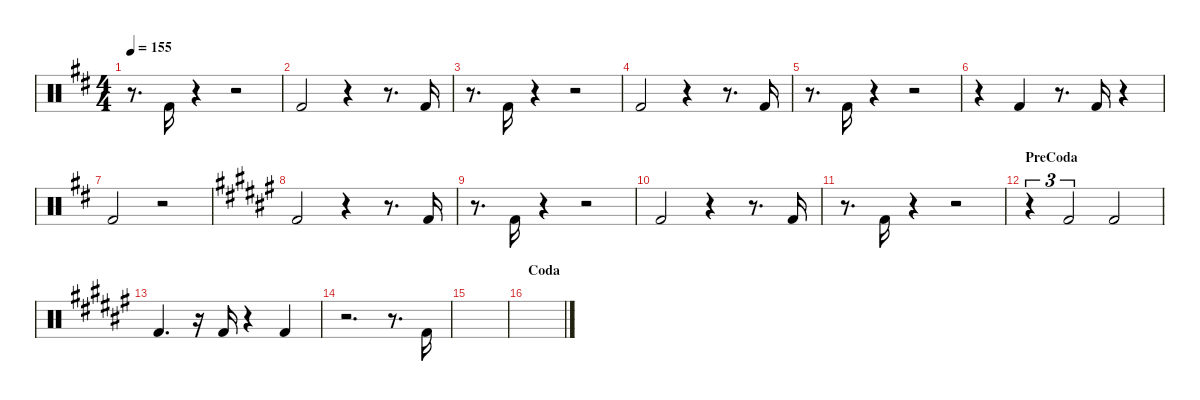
\hideDynamics
\bracketExtendMode nobrackets
\singleTrackTrackNamePolicy hidden
\multiTrackTrackNamePolicy hidden
\otherSystemsTrackNameOrientation horizontal
\track ("Kick" "Drums") {instrument percussion}
\staff {score}
\articulation defaults
\ts (4 4)
\tempo 155
\clef neutral
\ks d
r.8{d dy mf beam Down} "Kick (hit) 2"{acc forcenatural}.16{dy f beam Up} r.4{beam Up} r.2{beam Up} |
"Kick (hit) 2"{acc forcenatural}.2{beam Up} r.4{beam Up} r.8{d beam Up} "Kick (hit) 2"{acc forcenatural}.16{dy mf beam Up} |
r.8{d beam Down} "Kick (hit) 2"{acc forcenatural}.16{dy f beam Up} r.4{beam Up} r.2{beam Up} |
"Kick (hit) 2"{acc forcenatural}.2{beam Up} r.4{beam Up} r.8{d beam Up} "Kick (hit) 2"{acc forcenatural}.16{dy mf beam Up} |
r.8{d beam Down} "Kick (hit) 2"{acc forcenatural}.16{dy f beam Up} r.4{beam Up} r.2{beam Up} |
r.4{beam Down} "Kick (hit) 2"{acc forcenatural}.4{beam Up} r.8{d beam Up} "Kick (hit) 2"{acc forcenatural}.16{dy mf beam Up} r.4{beam Up} |
"Kick (hit) 2"{acc forcenatural}.2{beam Up} r.2{beam Up} |
\ks f# "Kick (hit) 2"{acc forcenatural}.2{beam Up}
r.4{beam Up} r.8{d beam Up} "Kick (hit) 2"{acc forcenatural}.16{beam Up} |
r.8{d beam Down} "Kick (hit) 2"{acc forcenatural}.16{beam Up} r.4{beam Up} r.2{beam Up} |
"Kick (hit) 2"{acc forcenatural}.2{beam Up} r.4{beam Up} r.8{d beam Up} "Kick (hit) 2"{acc forcenatural}.16{beam Up} |
r.8{d beam Down} "Kick (hit) 2"{acc forcenatural}.16{beam Up} r.4{beam Up} r.2{beam Up} |
\section ("" "PreCoda")
r.4{tu (3 2) beam Down} "Kick (hit) 2"{acc forcenatural}.2{tu (3 2) beam Up} "Kick (hit) 2"{acc forcenatural}.2{beam Up} |
"Kick (hit) 2"{acc forcenatural}.4{d beam Up} r.16{beam Up} "Kick (hit) 2"{acc forcenatural}.16{beam Up} r.4{beam Up} "Kick (hit) 2"{acc forcenatural}.4{beam Up} |
r.2{d beam Down} r.8{d beam Down} "Kick (hit) 2"{acc forcenatural}.16{beam Up} |
|
\section ("" "Coda")
